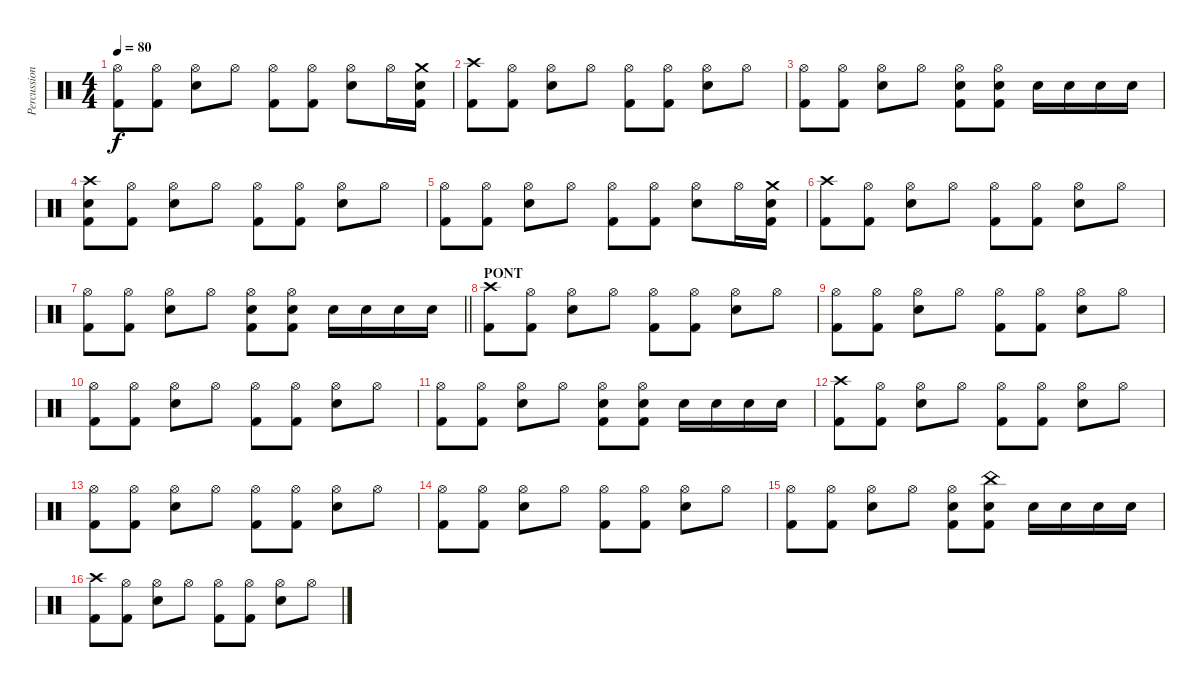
\track ("Percussions" "Percussion") {instrument percussion}
\staff {score}
\articulation defaults
\ts (4 4)
\tempo 80
\clef neutral
\ks c
("Hi-Hat (open)" "Kick (hit) 2").8{dy f} ("Hi-Hat (open)" "Kick (hit) 2").8 ("Hi-Hat (open)" "Snare (hit) 2").8 "Hi-Hat (open)".8 ("Hi-Hat (open)" "Kick (hit) 2").8 ("Hi-Hat (open)" "Kick (hit) 2").8 ("Hi-Hat (open)" "Snare (hit) 2").8 "Hi-Hat (open)".16 ("Crash medium (hit)" "Snare (hit) 2" "Kick (hit) 2").16 |
("Crash high (hit)" "Kick (hit) 2").8 ("Hi-Hat (open)" "Kick (hit) 2").8 ("Hi-Hat (open)" "Snare (hit) 2").8 "Hi-Hat (open)".8 ("Hi-Hat (open)" "Kick (hit) 2").8 ("Hi-Hat (open)" "Kick (hit) 2").8 ("Hi-Hat (open)" "Snare (hit) 2").8 "Hi-Hat (open)".8 |
("Hi-Hat (open)" "Kick (hit) 2").8 ("Hi-Hat (open)" "Kick (hit) 2").8 ("Hi-Hat (open)" "Snare (hit) 2").8 "Hi-Hat (open)".8 ("Hi-Hat (open)" "Snare (hit) 2" "Kick (hit) 2").8 ("Hi-Hat (open)" "Snare (hit) 2" "Kick (hit) 2").8 "Snare (hit) 2".16 "Snare (hit) 2".16 "Snare (hit) 2".16 "Snare (hit) 2".16 |
("Crash high (hit)" "Snare (hit) 2" "Kick (hit) 2").8 ("Hi-Hat (open)" "Kick (hit) 2").8 ("Hi-Hat (open)" "Snare (hit) 2").8 "Hi-Hat (open)".8 ("Hi-Hat (open)" "Kick (hit) 2").8 ("Hi-Hat (open)" "Kick (hit) 2").8 ("Hi-Hat (open)" "Snare (hit) 2").8 "Hi-Hat (open)".8 |
("Hi-Hat (open)" "Kick (hit) 2").8 ("Hi-Hat (open)" "Kick (hit) 2").8 ("Hi-Hat (open)" "Snare (hit) 2").8 "Hi-Hat (open)".8 ("Hi-Hat (open)" "Kick (hit) 2").8 ("Hi-Hat (open)" "Kick (hit) 2").8 ("Hi-Hat (open)" "Snare (hit) 2").8 "Hi-Hat (open)".16 ("Crash medium (hit)" "Snare (hit) 2" "Kick (hit) 2").16 |
("Crash high (hit)" "Kick (hit) 2").8 ("Hi-Hat (open)" "Kick (hit) 2").8 ("Hi-Hat (open)" "Snare (hit) 2").8 "Hi-Hat (open)".8 ("Hi-Hat (open)" "Kick (hit) 2").8 ("Hi-Hat (open)" "Kick (hit) 2").8 ("Hi-Hat (open)" "Snare (hit) 2").8 "Hi-Hat (open)".8 |
\barLineRight lightlight
("Hi-Hat (open)" "Kick (hit) 2").8 ("Hi-Hat (open)" "Kick (hit) 2").8 ("Hi-Hat (open)" "Snare (hit) 2").8 "Hi-Hat (open)".8 ("Hi-Hat (open)" "Snare (hit) 2" "Kick (hit) 2").8 ("Hi-Hat (open)" "Snare (hit) 2" "Kick (hit) 2").8 "Snare (hit) 2".16 "Snare (hit) 2".16 "Snare (hit) 2".16 "Snare (hit) 2".16 |
\section ("" "PONT")
("Crash high (hit)" "Kick (hit) 2").8 ("Hi-Hat (open)" "Kick (hit) 2").8 ("Hi-Hat (open)" "Snare (hit) 2").8 "Hi-Hat (open)".8 ("Hi-Hat (open)" "Kick (hit) 2").8 ("Hi-Hat (open)" "Kick (hit) 2").8 ("Hi-Hat (open)" "Snare (hit) 2").8 "Hi-Hat (open)".8 |
("Hi-Hat (open)" "Kick (hit) 2").8 ("Hi-Hat (open)" "Kick (hit) 2").8 ("Hi-Hat (open)" "Snare (hit) 2").8 "Hi-Hat (open)".8 ("Hi-Hat (open)" "Kick (hit) 2").8 ("Hi-Hat (open)" "Kick (hit) 2").8 ("Hi-Hat (open)" "Snare (hit) 2").8 "Hi-Hat (open)".8 |
("Hi-Hat (open)" "Kick (hit) 2").8 ("Hi-Hat (open)" "Kick (hit) 2").8 ("Hi-Hat (open)" "Snare (hit) 2").8 "Hi-Hat (open)".8 ("Hi-Hat (open)" "Kick (hit) 2").8 ("Hi-Hat (open)" "Kick (hit) 2").8 ("Hi-Hat (open)" "Snare (hit) 2").8 "Hi-Hat (open)".8 |
("Hi-Hat (open)" "Kick (hit) 2").8 ("Hi-Hat (open)" "Kick (hit) 2").8 ("Hi-Hat (open)" "Snare (hit) 2").8 "Hi-Hat (open)".8 ("Hi-Hat (open)" "Snare (hit) 2" "Kick (hit) 2").8 ("Hi-Hat (open)" "Snare (hit) 2" "Kick (hit) 2").8 "Snare (hit) 2".16 "Snare (hit) 2".16 "Snare (hit) 2".16 "Snare (hit) 2".16 |
("Crash high (hit)" "Kick (hit) 2").8 ("Hi-Hat (open)" "Kick (hit) 2").8 ("Hi-Hat (open)" "Snare (hit) 2").8 "Hi-Hat (open)".8 ("Hi-Hat (open)" "Kick (hit) 2").8 ("Hi-Hat (open)" "Kick (hit) 2").8 ("Hi-Hat (open)" "Snare (hit) 2").8 "Hi-Hat (open)".8 |
("Hi-Hat (open)" "Kick (hit) 2").8 ("Hi-Hat (open)" "Kick (hit) 2").8 ("Hi-Hat (open)" "Snare (hit) 2").8 "Hi-Hat (open)".8 ("Hi-Hat (open)" "Kick (hit) 2").8 ("Hi-Hat (open)" "Kick (hit) 2").8 ("Hi-Hat (open)" "Snare (hit) 2").8 "Hi-Hat (open)".8 |
("Hi-Hat (open)" "Kick (hit) 2").8 ("Hi-Hat (open)" "Kick (hit) 2").8 ("Hi-Hat (open)" "Snare (hit) 2").8 "Hi-Hat (open)".8 ("Hi-Hat (open)" "Kick (hit) 2").8 ("Hi-Hat (open)" "Kick (hit) 2").8 ("Hi-Hat (open)" "Snare (hit) 2").8 "Hi-Hat (open)".8 |
("Hi-Hat (open)" "Kick (hit) 2").8 ("Hi-Hat (open)" "Kick (hit) 2").8 ("Hi-Hat (open)" "Snare (hit) 2").8 "Hi-Hat (open)".8 ("Hi-Hat (open)" "Snare (hit) 2" "Kick (hit) 2").8 ("China (hit)" "Snare (hit) 2" "Kick (hit) 2").8 "Snare (hit) 2".16 "Snare (hit) 2".16 "Snare (hit) 2".16 "Snare (hit) 2".16 |
("Crash high (hit)" "Kick (hit) 2").8 ("Hi-Hat (open)" "Kick (hit) 2").8 ("Hi-Hat (open)" "Snare (hit) 2").8 "Hi-Hat (open)".8 ("Hi-Hat (open)" "Kick (hit) 2").8 ("Hi-Hat (open)" "Kick (hit) 2").8 ("Hi-Hat (open)" "Snare (hit) 2").8 "Hi-Hat (open)".8
